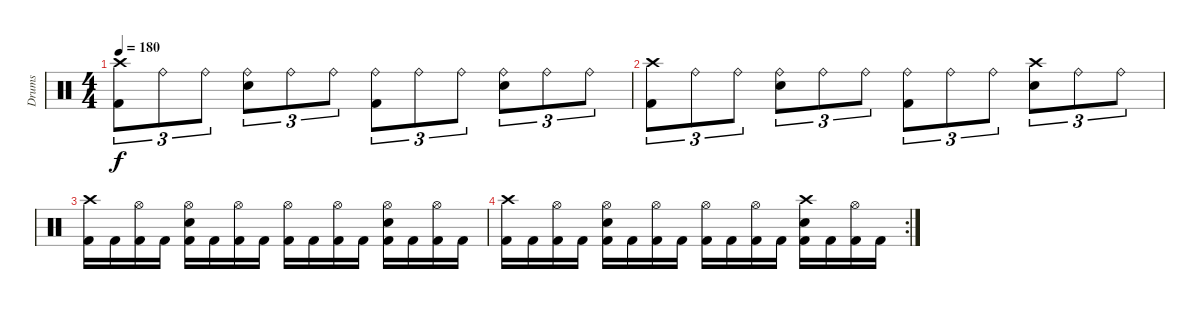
\track ("Drums" "Drums") {instrument percussion}
\staff {score}
\articulation defaults
\ts (4 4)
\tempo 180
\clef neutral
\ks c
("Kick (hit) 2" "Crash high (hit)").8{tu (3 2) dy f} "Ride (bell)".8{tu (3 2)} "Ride (bell)".8{tu (3 2)} ("Snare (hit) 2" "Ride (bell)").8{tu (3 2)} "Ride (bell)".8{tu (3 2)} "Ride (bell)".8{tu (3 2)} ("Kick (hit) 2" "Ride (bell)").8{tu (3 2)} "Ride (bell)".8{tu (3 2)} "Ride (bell)".8{tu (3 2)} ("Snare (hit) 2" "Ride (bell)").8{tu (3 2)} "Ride (bell)".8{tu (3 2)} "Ride (bell)".8{tu (3 2)} |
("Kick (hit) 2" "Crash high (hit)").8{tu (3 2)} "Ride (bell)".8{tu (3 2)} "Ride (bell)".8{tu (3 2)} ("Snare (hit) 2" "Ride (bell)").8{tu (3 2)} "Ride (bell)".8{tu (3 2)} "Ride (bell)".8{tu (3 2)} ("Kick (hit) 2" "Ride (bell)").8{tu (3 2)} "Ride (bell)".8{tu (3 2)} "Ride (bell)".8{tu (3 2)} ("Snare (hit) 2" "Crash high (hit)").8{tu (3 2)} "Ride (bell)".8{tu (3 2)} "Ride (bell)".8{tu (3 2)} |
("Kick (hit) 2" "Crash high (hit)").16 "Kick (hit) 2".16 ("Kick (hit) 2" "Hi-Hat (open)").16 "Kick (hit) 2".16 ("Kick (hit) 2" "Snare (hit) 2" "Hi-Hat (open)").16 "Kick (hit) 2".16 ("Kick (hit) 2" "Hi-Hat (open)").16 "Kick (hit) 2".16 ("Kick (hit) 2" "Hi-Hat (open)").16 "Kick (hit) 2".16 ("Kick (hit) 2" "Hi-Hat (open)").16 "Kick (hit) 2".16 ("Kick (hit) 2" "Snare (hit) 2" "Hi-Hat (open)").16 "Kick (hit) 2".16 ("Kick (hit) 2" "Hi-Hat (open)").16 "Kick (hit) 2".16 |
\rc 2
("Kick (hit) 2" "Crash high (hit)").16 "Kick (hit) 2".16 ("Kick (hit) 2" "Hi-Hat (open)").16 "Kick (hit) 2".16 ("Kick (hit) 2" "Snare (hit) 2" "Hi-Hat (open)").16 "Kick (hit) 2".16 ("Kick (hit) 2" "Hi-Hat (open)").16 "Kick (hit) 2".16 ("Kick (hit) 2" "Hi-Hat (open)").16 "Kick (hit) 2".16 ("Kick (hit) 2" "Hi-Hat (open)").16 "Kick (hit) 2".16 ("Kick (hit) 2" "Snare (hit) 2" "Crash high (hit)").16 "Kick (hit) 2".16 ("Kick (hit) 2" "Hi-Hat (open)").16 "Kick (hit) 2".16
